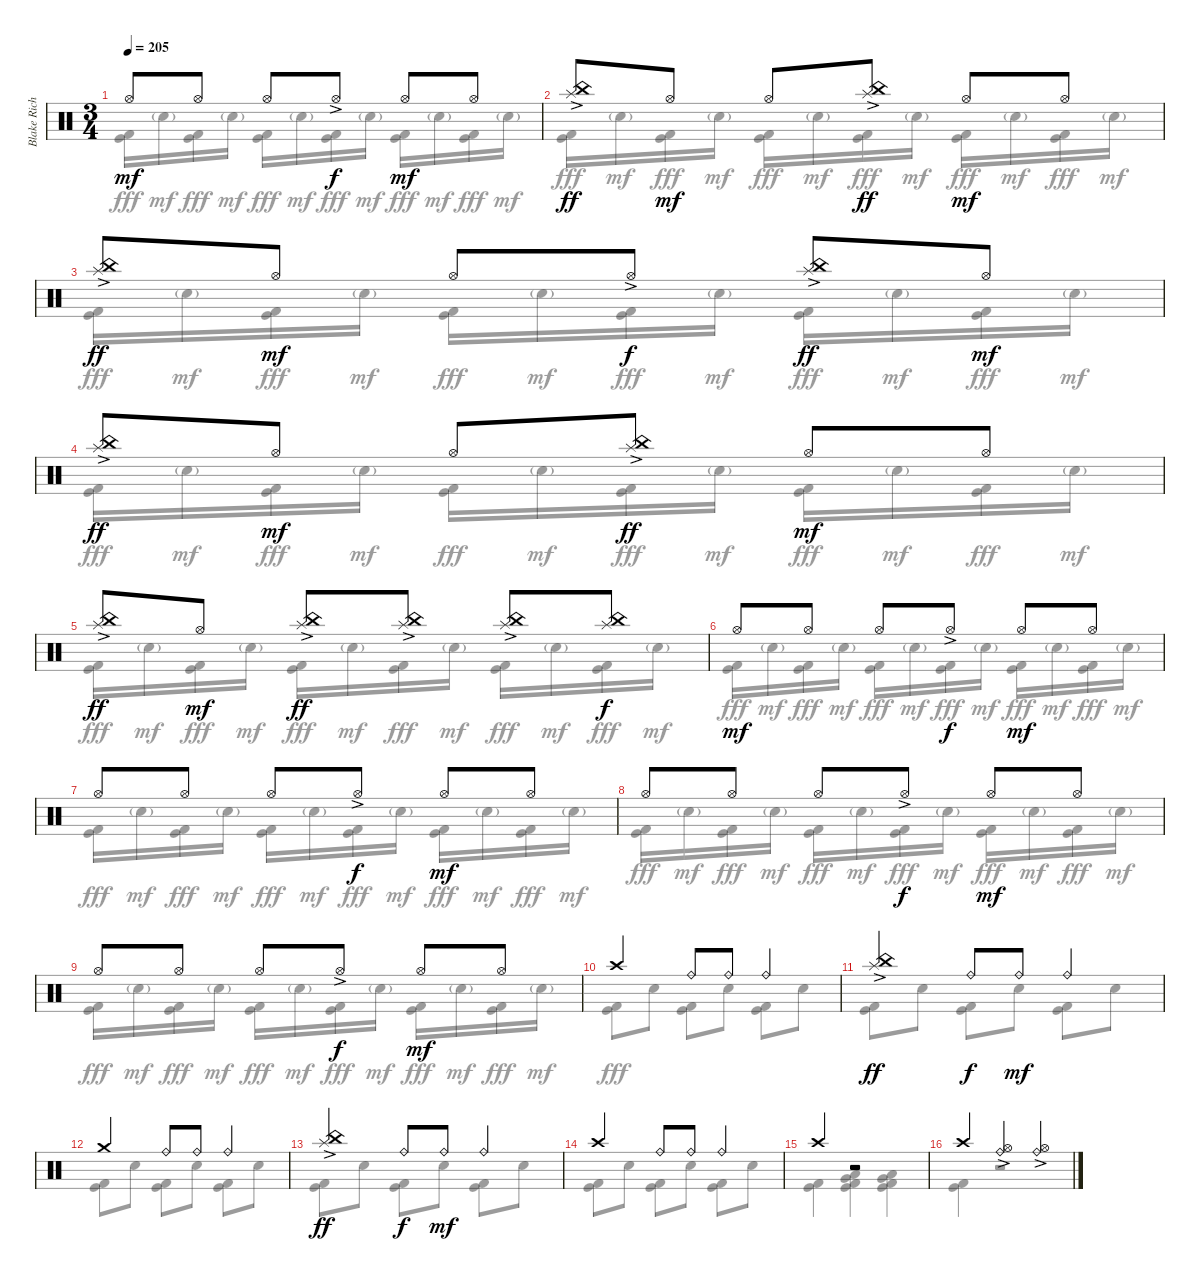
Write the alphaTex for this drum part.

\track ("Blake Richardson Drums" "Blake Rich") {instrument percussion}
\staff {score}
\articulation defaults
\voice
\ts (3 4)
\tempo 205
\clef neutral
\ks c "Hi-Hat (open)".8{dy mf} "Hi-Hat (open)".8 "Hi-Hat (open)".8 "Hi-Hat (open)"{ac}.8{dy f} "Hi-Hat (open)".8{dy mf} "Hi-Hat (open)".8
|
("Splash (hit)"{ac} "China (hit)").8{dy ff} "Hi-Hat (open)".8{dy mf} "Hi-Hat (open)".8 ("Splash (hit)"{ac} "China (hit)").8{dy ff} "Hi-Hat (open)".8{dy mf} "Hi-Hat (open)".8 |
("Splash (hit)"{ac} "China (hit)").8{dy ff} "Hi-Hat (open)".8{dy mf} "Hi-Hat (open)".8 "Hi-Hat (open)"{ac}.8{dy f} ("Splash (hit)"{ac} "China (hit)").8{dy ff} "Hi-Hat (open)".8{dy mf} |
("Splash (hit)"{ac} "China (hit)").8{dy ff} "Hi-Hat (open)".8{dy mf} "Hi-Hat (open)".8 ("Splash (hit)"{ac} "China (hit)").8{dy ff} "Hi-Hat (open)".8{dy mf} "Hi-Hat (open)".8 |
("Splash (hit)"{ac} "China (hit)").8{dy ff} "Hi-Hat (open)".8{dy mf} ("Splash (hit)"{ac} "China (hit)").8{dy ff} ("Splash (hit)"{ac} "China (hit)").8 ("Splash (hit)"{ac} "China (hit)").8 ("Splash (hit)" "China (hit)").8{dy f} |
"Hi-Hat (open)".8{dy mf} "Hi-Hat (open)".8 "Hi-Hat (open)".8 "Hi-Hat (open)"{ac}.8{dy f} "Hi-Hat (open)".8{dy mf} "Hi-Hat (open)".8 |
"Hi-Hat (open)".8 "Hi-Hat (open)".8 "Hi-Hat (open)".8 "Hi-Hat (open)"{ac}.8{dy f} "Hi-Hat (open)".8{dy mf} "Hi-Hat (open)".8 |
"Hi-Hat (open)".8 "Hi-Hat (open)".8 "Hi-Hat (open)".8 "Hi-Hat (open)"{ac}.8{dy f} "Hi-Hat (open)".8{dy mf} "Hi-Hat (open)".8 |
"Hi-Hat (open)".8 "Hi-Hat (open)".8 "Hi-Hat (open)".8 "Hi-Hat (open)"{ac}.8{dy f} "Hi-Hat (open)".8{dy mf} "Hi-Hat (open)".8 |
"Crash high (hit)".4 "Ride (bell)".8 "Ride (bell)".8 "Ride (bell)".4 |
("China (hit)" "Splash (hit)"{ac}).4{dy ff} "Ride (bell)".8{dy f} "Ride (bell)".8{dy mf} "Ride (bell)".4 |
"Crash medium (hit)".4 "Ride (bell)".8 "Ride (bell)".8 "Ride (bell)".4 |
("China (hit)" "Splash (hit)"{ac}).4{dy ff} "Ride (bell)".8{dy f} "Ride (bell)".8{dy mf} "Ride (bell)".4 |
"Crash high (hit)".4 "Ride (bell)".8 "Ride (bell)".8 "Ride (bell)".4 |
"Crash high (hit)".4 r.2 |
"Crash high (hit)".4 ("Hi-Hat (open)" "Ride (bell)"{ac}).4 ("Hi-Hat (open)" "Ride (bell)"{ac}).4
\voice
\clef neutral
\ottava regular
\simile none
\ks c
("Kick (hit)" "Kick (hit) 2").16{dy fff} "Electric Snare (hit)"{g}.16{dy mf} ("Kick (hit)" "Kick (hit) 2").16{dy fff} "Electric Snare (hit)"{g}.16{dy mf} ("Kick (hit)" "Kick (hit) 2").16{dy fff} "Electric Snare (hit)"{g}.16{dy mf} ("Kick (hit)" "Kick (hit) 2").16{dy fff} "Electric Snare (hit)"{g}.16{dy mf} ("Kick (hit)" "Kick (hit) 2").16{dy fff} "Electric Snare (hit)"{g}.16{dy mf} ("Kick (hit)" "Kick (hit) 2").16{dy fff} "Electric Snare (hit)"{g}.16{dy mf} |
("Kick (hit)" "Kick (hit) 2").16{dy fff} "Electric Snare (hit)"{g}.16{dy mf} ("Kick (hit)" "Kick (hit) 2").16{dy fff} "Electric Snare (hit)"{g}.16{dy mf} ("Kick (hit)" "Kick (hit) 2").16{dy fff} "Electric Snare (hit)"{g}.16{dy mf} ("Kick (hit)" "Kick (hit) 2").16{dy fff} "Electric Snare (hit)"{g}.16{dy mf} ("Kick (hit)" "Kick (hit) 2").16{dy fff} "Electric Snare (hit)"{g}.16{dy mf} ("Kick (hit)" "Kick (hit) 2").16{dy fff} "Electric Snare (hit)"{g}.16{dy mf} |
("Kick (hit)" "Kick (hit) 2").16{dy fff} "Electric Snare (hit)"{g}.16{dy mf} ("Kick (hit)" "Kick (hit) 2").16{dy fff} "Electric Snare (hit)"{g}.16{dy mf} ("Kick (hit)" "Kick (hit) 2").16{dy fff} "Electric Snare (hit)"{g}.16{dy mf} ("Kick (hit)" "Kick (hit) 2").16{dy fff} "Electric Snare (hit)"{g}.16{dy mf} ("Kick (hit)" "Kick (hit) 2").16{dy fff} "Electric Snare (hit)"{g}.16{dy mf} ("Kick (hit)" "Kick (hit) 2").16{dy fff} "Electric Snare (hit)"{g}.16{dy mf} |
("Kick (hit)" "Kick (hit) 2").16{dy fff} "Electric Snare (hit)"{g}.16{dy mf} ("Kick (hit)" "Kick (hit) 2").16{dy fff} "Electric Snare (hit)"{g}.16{dy mf} ("Kick (hit)" "Kick (hit) 2").16{dy fff} "Electric Snare (hit)"{g}.16{dy mf} ("Kick (hit)" "Kick (hit) 2").16{dy fff} "Electric Snare (hit)"{g}.16{dy mf} ("Kick (hit)" "Kick (hit) 2").16{dy fff} "Electric Snare (hit)"{g}.16{dy mf} ("Kick (hit)" "Kick (hit) 2").16{dy fff} "Electric Snare (hit)"{g}.16{dy mf} |
("Kick (hit)" "Kick (hit) 2").16{dy fff} "Electric Snare (hit)"{g}.16{dy mf} ("Kick (hit)" "Kick (hit) 2").16{dy fff} "Electric Snare (hit)"{g}.16{dy mf} ("Kick (hit)" "Kick (hit) 2").16{dy fff} "Electric Snare (hit)"{g}.16{dy mf} ("Kick (hit)" "Kick (hit) 2").16{dy fff} "Electric Snare (hit)"{g}.16{dy mf} ("Kick (hit)" "Kick (hit) 2").16{dy fff} "Electric Snare (hit)"{g}.16{dy mf} ("Kick (hit)" "Kick (hit) 2").16{dy fff} "Electric Snare (hit)"{g}.16{dy mf} |
("Kick (hit)" "Kick (hit) 2").16{dy fff} "Electric Snare (hit)"{g}.16{dy mf} ("Kick (hit)" "Kick (hit) 2").16{dy fff} "Electric Snare (hit)"{g}.16{dy mf} ("Kick (hit)" "Kick (hit) 2").16{dy fff} "Electric Snare (hit)"{g}.16{dy mf} ("Kick (hit)" "Kick (hit) 2").16{dy fff} "Electric Snare (hit)"{g}.16{dy mf} ("Kick (hit)" "Kick (hit) 2").16{dy fff} "Electric Snare (hit)"{g}.16{dy mf} ("Kick (hit)" "Kick (hit) 2").16{dy fff} "Electric Snare (hit)"{g}.16{dy mf} |
("Kick (hit)" "Kick (hit) 2").16{dy fff} "Electric Snare (hit)"{g}.16{dy mf} ("Kick (hit)" "Kick (hit) 2").16{dy fff} "Electric Snare (hit)"{g}.16{dy mf} ("Kick (hit)" "Kick (hit) 2").16{dy fff} "Electric Snare (hit)"{g}.16{dy mf} ("Kick (hit)" "Kick (hit) 2").16{dy fff} "Electric Snare (hit)"{g}.16{dy mf} ("Kick (hit)" "Kick (hit) 2").16{dy fff} "Electric Snare (hit)"{g}.16{dy mf} ("Kick (hit)" "Kick (hit) 2").16{dy fff} "Electric Snare (hit)"{g}.16{dy mf} |
("Kick (hit)" "Kick (hit) 2").16{dy fff} "Electric Snare (hit)"{g}.16{dy mf} ("Kick (hit)" "Kick (hit) 2").16{dy fff} "Electric Snare (hit)"{g}.16{dy mf} ("Kick (hit)" "Kick (hit) 2").16{dy fff} "Electric Snare (hit)"{g}.16{dy mf} ("Kick (hit)" "Kick (hit) 2").16{dy fff} "Electric Snare (hit)"{g}.16{dy mf} ("Kick (hit)" "Kick (hit) 2").16{dy fff} "Electric Snare (hit)"{g}.16{dy mf} ("Kick (hit)" "Kick (hit) 2").16{dy fff} "Electric Snare (hit)"{g}.16{dy mf} |
("Kick (hit)" "Kick (hit) 2").16{dy fff} "Electric Snare (hit)"{g}.16{dy mf} ("Kick (hit)" "Kick (hit) 2").16{dy fff} "Electric Snare (hit)"{g}.16{dy mf} ("Kick (hit)" "Kick (hit) 2").16{dy fff} "Electric Snare (hit)"{g}.16{dy mf} ("Kick (hit)" "Kick (hit) 2").16{dy fff} "Electric Snare (hit)"{g}.16{dy mf} ("Kick (hit)" "Kick (hit) 2").16{dy fff} "Electric Snare (hit)"{g}.16{dy mf} ("Kick (hit)" "Kick (hit) 2").16{dy fff} "Electric Snare (hit)"{g}.16{dy mf} |
("Kick (hit)" "Kick (hit) 2").8{dy fff} "Electric Snare (hit)".8 ("Kick (hit)" "Kick (hit) 2").8 "Electric Snare (hit)".8 ("Kick (hit)" "Kick (hit) 2").8 "Electric Snare (hit)".8 |
("Kick (hit)" "Kick (hit) 2").8 "Electric Snare (hit)".8 ("Kick (hit)" "Kick (hit) 2").8 "Electric Snare (hit)".8 ("Kick (hit)" "Kick (hit) 2").8 "Electric Snare (hit)".8 |
("Kick (hit)" "Kick (hit) 2").8 "Electric Snare (hit)".8 ("Kick (hit)" "Kick (hit) 2").8 "Electric Snare (hit)".8 ("Kick (hit)" "Kick (hit) 2").8 "Electric Snare (hit)".8 |
("Kick (hit)" "Kick (hit) 2").8 "Electric Snare (hit)".8 ("Kick (hit)" "Kick (hit) 2").8 "Electric Snare (hit)".8 ("Kick (hit)" "Kick (hit) 2").8 "Electric Snare (hit)".8 |
("Kick (hit)" "Kick (hit) 2").8 "Electric Snare (hit)".8 ("Kick (hit)" "Kick (hit) 2").8 "Electric Snare (hit)".8 ("Kick (hit)" "Kick (hit) 2").8 "Electric Snare (hit)".8 |
("Kick (hit)" "Kick (hit) 2").4 ("Kick (hit)" "Low Tom (hit)" "Very Low Tom (hit)" "Kick (hit) 2").4 ("Kick (hit)" "Low Tom (hit)" "Very Low Tom (hit)" "Kick (hit) 2").4 |
("Kick (hit)" "Kick (hit) 2").4 r.2
